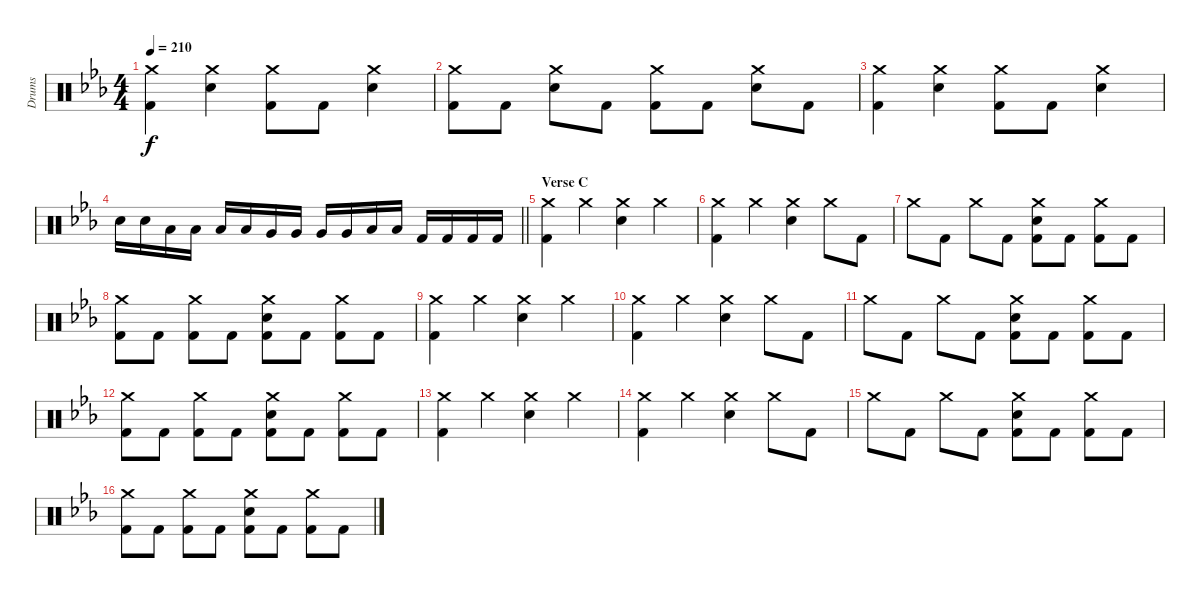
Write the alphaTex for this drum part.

\track ("Drums" "Drums") {instrument percussion}
\staff {score}
\articulation defaults
\ts (4 4)
\tempo 210
\clef neutral
\ks cminor
("Crash medium (hit)" "Kick (hit) 2").4{dy f} ("Crash medium (hit)" "Electric Snare (hit)").4 ("Crash medium (hit)" "Kick (hit) 2").8 "Kick (hit) 2".8 ("Crash medium (hit)" "Electric Snare (hit)").4 |
("Crash medium (hit)" "Kick (hit) 2").8 "Kick (hit) 2".8 ("Crash medium (hit)" "Electric Snare (hit)").8 "Kick (hit) 2".8 ("Crash medium (hit)" "Kick (hit) 2").8 "Kick (hit) 2".8 ("Crash medium (hit)" "Electric Snare (hit)").8 "Kick (hit) 2".8 |
("Crash medium (hit)" "Kick (hit) 2").4 ("Crash medium (hit)" "Electric Snare (hit)").4 ("Crash medium (hit)" "Kick (hit) 2").8 "Kick (hit) 2".8 ("Crash medium (hit)" "Electric Snare (hit)").4 |
\barLineRight lightlight "Electric Snare (hit)".16 "Electric Snare (hit)".16 "Low Tom (hit)".16 "Low Tom (hit)".16 "Low Tom (hit)".16 "Low Tom (hit)".16 "Very Low Tom (hit)".16 "Very Low Tom (hit)".16 "Very Low Tom (hit)".16 "Very Low Tom (hit)".16 "Low Floor Tom (hit)".16 "Low Floor Tom (hit)".16 "Kick (hit) 2".16 "Kick (hit) 2".16 "Kick (hit) 2".16 "Kick (hit) 2".16
|
\section ("" "Verse C")
("Crash medium (hit)" "Kick (hit) 2").4 "Crash medium (hit)".4 ("Crash medium (hit)" "Electric Snare (hit)").4 "Crash medium (hit)".4 |
("Crash medium (hit)" "Kick (hit) 2").4 "Crash medium (hit)".4 ("Crash medium (hit)" "Electric Snare (hit)").4 "Crash medium (hit)".8 "Kick (hit) 2".8 |
"Crash medium (hit)".8 "Kick (hit) 2".8 "Crash medium (hit)".8 "Kick (hit) 2".8 ("Crash medium (hit)" "Electric Snare (hit)" "Kick (hit) 2").8 "Kick (hit) 2".8 ("Crash medium (hit)" "Kick (hit) 2").8 "Kick (hit) 2".8 |
("Crash medium (hit)" "Kick (hit) 2").8 "Kick (hit) 2".8 ("Crash medium (hit)" "Kick (hit) 2").8 "Kick (hit) 2".8 ("Crash medium (hit)" "Electric Snare (hit)" "Kick (hit) 2").8 "Kick (hit) 2".8 ("Crash medium (hit)" "Kick (hit) 2").8 "Kick (hit) 2".8 |
("Crash medium (hit)" "Kick (hit) 2").4 "Crash medium (hit)".4 ("Crash medium (hit)" "Electric Snare (hit)").4 "Crash medium (hit)".4 |
("Crash medium (hit)" "Kick (hit) 2").4 "Crash medium (hit)".4 ("Crash medium (hit)" "Electric Snare (hit)").4 "Crash medium (hit)".8 "Kick (hit) 2".8 |
"Crash medium (hit)".8 "Kick (hit) 2".8 "Crash medium (hit)".8 "Kick (hit) 2".8 ("Crash medium (hit)" "Electric Snare (hit)" "Kick (hit) 2").8 "Kick (hit) 2".8 ("Crash medium (hit)" "Kick (hit) 2").8 "Kick (hit) 2".8 |
("Crash medium (hit)" "Kick (hit) 2").8 "Kick (hit) 2".8 ("Crash medium (hit)" "Kick (hit) 2").8 "Kick (hit) 2".8 ("Crash medium (hit)" "Electric Snare (hit)" "Kick (hit) 2").8 "Kick (hit) 2".8 ("Crash medium (hit)" "Kick (hit) 2").8 "Kick (hit) 2".8 |
("Crash medium (hit)" "Kick (hit) 2").4 "Crash medium (hit)".4 ("Crash medium (hit)" "Electric Snare (hit)").4 "Crash medium (hit)".4 |
("Crash medium (hit)" "Kick (hit) 2").4 "Crash medium (hit)".4 ("Crash medium (hit)" "Electric Snare (hit)").4 "Crash medium (hit)".8 "Kick (hit) 2".8 |
"Crash medium (hit)".8 "Kick (hit) 2".8 "Crash medium (hit)".8 "Kick (hit) 2".8 ("Crash medium (hit)" "Electric Snare (hit)" "Kick (hit) 2").8 "Kick (hit) 2".8 ("Crash medium (hit)" "Kick (hit) 2").8 "Kick (hit) 2".8 |
("Crash medium (hit)" "Kick (hit) 2").8 "Kick (hit) 2".8 ("Crash medium (hit)" "Kick (hit) 2").8 "Kick (hit) 2".8 ("Crash medium (hit)" "Electric Snare (hit)" "Kick (hit) 2").8 "Kick (hit) 2".8 ("Crash medium (hit)" "Kick (hit) 2").8 "Kick (hit) 2".8
